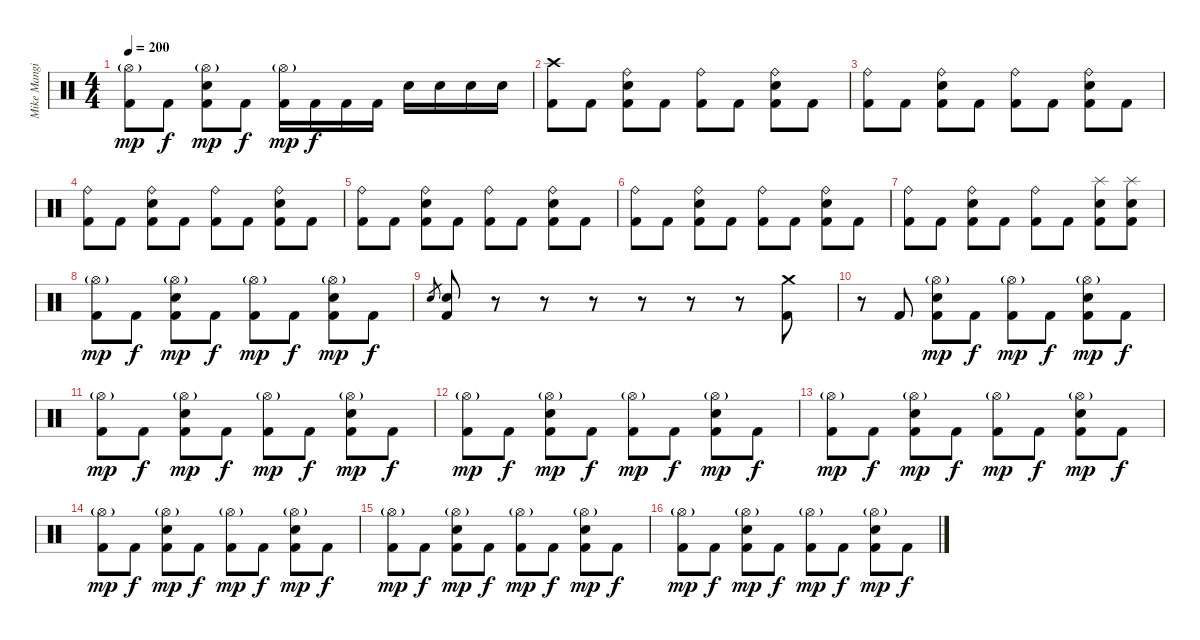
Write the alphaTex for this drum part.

\track ("Mike Mangini" "Mike Mangi") {instrument percussion}
\staff {score}
\articulation defaults
\ts (4 4)
\tempo 200
\clef neutral
\ks c
("Hi-Hat (open)"{g} "Kick (hit) 2").8{dy mp} "Kick (hit) 2".8{dy f} ("Hi-Hat (open)"{g} "Electric Snare (hit)" "Kick (hit) 2").8{dy mp} "Kick (hit) 2".8{dy f} ("Hi-Hat (open)"{g} "Kick (hit) 2").16{dy mp} "Kick (hit) 2".16{dy f} "Kick (hit) 2".16 "Kick (hit) 2".16 "Electric Snare (hit)".16 "Electric Snare (hit)".16 "Electric Snare (hit)".16 "Electric Snare (hit)".16 |
("Crash high (hit)" "Kick (hit) 2").8 "Kick (hit) 2".8 ("Ride (bell)" "Electric Snare (hit)" "Kick (hit) 2").8 "Kick (hit) 2".8 ("Ride (bell)" "Kick (hit) 2").8 "Kick (hit) 2".8 ("Ride (bell)" "Electric Snare (hit)" "Kick (hit) 2").8 "Kick (hit) 2".8 |
("Ride (bell)" "Kick (hit) 2").8 "Kick (hit) 2".8 ("Ride (bell)" "Electric Snare (hit)" "Kick (hit) 2").8 "Kick (hit) 2".8 ("Ride (bell)" "Kick (hit) 2").8 "Kick (hit) 2".8 ("Ride (bell)" "Electric Snare (hit)" "Kick (hit) 2").8 "Kick (hit) 2".8 |
("Ride (bell)" "Kick (hit) 2").8 "Kick (hit) 2".8 ("Ride (bell)" "Electric Snare (hit)" "Kick (hit) 2").8 "Kick (hit) 2".8 ("Ride (bell)" "Kick (hit) 2").8 "Kick (hit) 2".8 ("Ride (bell)" "Electric Snare (hit)" "Kick (hit) 2").8 "Kick (hit) 2".8 |
("Ride (bell)" "Kick (hit) 2").8 "Kick (hit) 2".8 ("Ride (bell)" "Electric Snare (hit)" "Kick (hit) 2").8 "Kick (hit) 2".8 ("Ride (bell)" "Kick (hit) 2").8 "Kick (hit) 2".8 ("Ride (bell)" "Electric Snare (hit)" "Kick (hit) 2").8 "Kick (hit) 2".8 |
("Ride (bell)" "Kick (hit) 2").8 "Kick (hit) 2".8 ("Ride (bell)" "Electric Snare (hit)" "Kick (hit) 2").8 "Kick (hit) 2".8 ("Ride (bell)" "Kick (hit) 2").8 "Kick (hit) 2".8 ("Ride (bell)" "Electric Snare (hit)" "Kick (hit) 2").8 "Kick (hit) 2".8 |
("Ride (bell)" "Kick (hit) 2").8 "Kick (hit) 2".8 ("Ride (bell)" "Electric Snare (hit)" "Kick (hit) 2").8 "Kick (hit) 2".8 ("Ride (bell)" "Kick (hit) 2").8 "Kick (hit) 2".8 ("Splash (hit)" "Electric Snare (hit)" "Kick (hit) 2").8 ("Splash (hit)" "Electric Snare (hit)" "Kick (hit) 2").8 |
("Hi-Hat (open)"{g} "Kick (hit) 2").8{dy mp} "Kick (hit) 2".8{dy f} ("Hi-Hat (open)"{g} "Electric Snare (hit)" "Kick (hit) 2").8{dy mp} "Kick (hit) 2".8{dy f} ("Hi-Hat (open)"{g} "Kick (hit) 2").8{dy mp} "Kick (hit) 2".8{dy f} ("Hi-Hat (open)"{g} "Electric Snare (hit)" "Kick (hit) 2").8{dy mp} "Kick (hit) 2".8{dy f} |
"Electric Snare (hit)".8{gr} ("Electric Snare (hit)" "Kick (hit) 2").8 r.8 r.8 r.8 r.8 r.8 r.8 ("Crash medium (hit)" "Kick (hit) 2").8 |
r.8 "Kick (hit) 2".8 ("Hi-Hat (open)"{g} "Electric Snare (hit)" "Kick (hit) 2").8{dy mp} "Kick (hit) 2".8{dy f} ("Hi-Hat (open)"{g} "Kick (hit) 2").8{dy mp} "Kick (hit) 2".8{dy f} ("Hi-Hat (open)"{g} "Electric Snare (hit)" "Kick (hit) 2").8{dy mp} "Kick (hit) 2".8{dy f} |
("Hi-Hat (open)"{g} "Kick (hit) 2").8{dy mp} "Kick (hit) 2".8{dy f} ("Hi-Hat (open)"{g} "Electric Snare (hit)" "Kick (hit) 2").8{dy mp} "Kick (hit) 2".8{dy f} ("Hi-Hat (open)"{g} "Kick (hit) 2").8{dy mp} "Kick (hit) 2".8{dy f} ("Hi-Hat (open)"{g} "Electric Snare (hit)" "Kick (hit) 2").8{dy mp} "Kick (hit) 2".8{dy f} |
("Hi-Hat (open)"{g} "Kick (hit) 2").8{dy mp} "Kick (hit) 2".8{dy f} ("Hi-Hat (open)"{g} "Electric Snare (hit)" "Kick (hit) 2").8{dy mp} "Kick (hit) 2".8{dy f} ("Hi-Hat (open)"{g} "Kick (hit) 2").8{dy mp} "Kick (hit) 2".8{dy f} ("Hi-Hat (open)"{g} "Electric Snare (hit)" "Kick (hit) 2").8{dy mp} "Kick (hit) 2".8{dy f} |
("Hi-Hat (open)"{g} "Kick (hit) 2").8{dy mp} "Kick (hit) 2".8{dy f} ("Hi-Hat (open)"{g} "Electric Snare (hit)" "Kick (hit) 2").8{dy mp} "Kick (hit) 2".8{dy f} ("Hi-Hat (open)"{g} "Kick (hit) 2").8{dy mp} "Kick (hit) 2".8{dy f} ("Hi-Hat (open)"{g} "Electric Snare (hit)" "Kick (hit) 2").8{dy mp} "Kick (hit) 2".8{dy f} |
("Hi-Hat (open)"{g} "Kick (hit) 2").8{dy mp} "Kick (hit) 2".8{dy f} ("Hi-Hat (open)"{g} "Electric Snare (hit)" "Kick (hit) 2").8{dy mp} "Kick (hit) 2".8{dy f} ("Hi-Hat (open)"{g} "Kick (hit) 2").8{dy mp} "Kick (hit) 2".8{dy f} ("Hi-Hat (open)"{g} "Electric Snare (hit)" "Kick (hit) 2").8{dy mp} "Kick (hit) 2".8{dy f} |
("Hi-Hat (open)"{g} "Kick (hit) 2").8{dy mp} "Kick (hit) 2".8{dy f} ("Hi-Hat (open)"{g} "Electric Snare (hit)" "Kick (hit) 2").8{dy mp} "Kick (hit) 2".8{dy f} ("Hi-Hat (open)"{g} "Kick (hit) 2").8{dy mp} "Kick (hit) 2".8{dy f} ("Hi-Hat (open)"{g} "Electric Snare (hit)" "Kick (hit) 2").8{dy mp} "Kick (hit) 2".8{dy f} |
("Hi-Hat (open)"{g} "Kick (hit) 2").8{dy mp} "Kick (hit) 2".8{dy f} ("Hi-Hat (open)"{g} "Electric Snare (hit)" "Kick (hit) 2").8{dy mp} "Kick (hit) 2".8{dy f} ("Hi-Hat (open)"{g} "Kick (hit) 2").8{dy mp} "Kick (hit) 2".8{dy f} ("Hi-Hat (open)"{g} "Electric Snare (hit)" "Kick (hit) 2").8{dy mp} "Kick (hit) 2".8{dy f}
